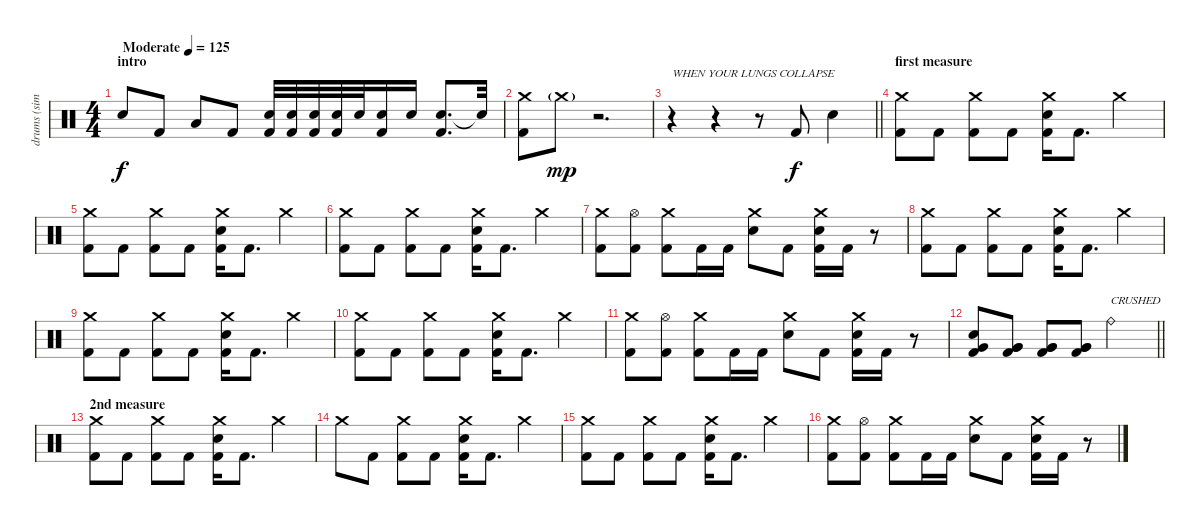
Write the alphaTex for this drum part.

\track ("drums (simple)" "drums (sim") {instrument percussion}
\staff {score}
\articulation defaults
\ts (4 4)
\section ("" "intro")
\tempo (125 "Moderate")
\clef neutral
\ks c "Electric Snare (hit)".8{dy f} "Kick (hit) 2".8 "Low Tom (hit)".8 "Kick (hit) 2".8
("Electric Snare (hit)" "Kick (hit) 2").32 ("Electric Snare (hit)" "Kick (hit) 2").32 ("Electric Snare (hit)" "Kick (hit) 2").32 ("Electric Snare (hit)" "Kick (hit) 2").32 "Electric Snare (hit)".32 ("Electric Snare (hit)" "Kick (hit) 2").16 "Electric Snare (hit)".16 ("Electric Snare (hit)" "Kick (hit) 2").8{d} "Snare (hit)"{t}.32 |
("Crash medium (hit)" "Kick (hit) 2").8 "Crash medium (hit)"{g}.8{dy mp volume 0} r.2{d} |
\barLineRight lightlight
r.4{txt "WHEN YOUR LUNGS COLLAPSE"} r.4 r.8 "Kick (hit) 2".8{dy f volume 12} "Electric Snare (hit)".4 |
\section ("" "first measure")
("Crash medium (hit)" "Kick (hit) 2").8 "Kick (hit) 2".8 ("Crash medium (hit)" "Kick (hit) 2").8 "Kick (hit) 2".8 ("Crash medium (hit)" "Electric Snare (hit)" "Kick (hit) 2").16 "Kick (hit) 2".8{d} "Crash medium (hit)".4 |
("Crash medium (hit)" "Kick (hit) 2").8 "Kick (hit) 2".8 ("Crash medium (hit)" "Kick (hit) 2").8 "Kick (hit) 2".8 ("Crash medium (hit)" "Electric Snare (hit)" "Kick (hit) 2").16 "Kick (hit) 2".8{d} "Crash medium (hit)".4 |
("Crash medium (hit)" "Kick (hit) 2").8 "Kick (hit) 2".8 ("Crash medium (hit)" "Kick (hit) 2").8 "Kick (hit) 2".8 ("Crash medium (hit)" "Electric Snare (hit)" "Kick (hit) 2").16 "Kick (hit) 2".8{d} "Crash medium (hit)".4 |
("Crash medium (hit)" "Kick (hit) 2").8 ("Hi-Hat (open)" "Kick (hit) 2").8 ("Crash medium (hit)" "Kick (hit) 2").8 "Kick (hit) 2".16 "Kick (hit) 2".16 ("Crash medium (hit)" "Electric Snare (hit)").8 "Kick (hit) 2".8 ("Crash medium (hit)" "Electric Snare (hit)" "Kick (hit) 2").16 "Kick (hit) 2".16 r.8 |
("Crash medium (hit)" "Kick (hit) 2").8 "Kick (hit) 2".8 ("Crash medium (hit)" "Kick (hit) 2").8 "Kick (hit) 2".8 ("Crash medium (hit)" "Electric Snare (hit)" "Kick (hit) 2").16 "Kick (hit) 2".8{d} "Crash medium (hit)".4 |
("Crash medium (hit)" "Kick (hit) 2").8 "Kick (hit) 2".8 ("Crash medium (hit)" "Kick (hit) 2").8 "Kick (hit) 2".8 ("Crash medium (hit)" "Electric Snare (hit)" "Kick (hit) 2").16 "Kick (hit) 2".8{d} "Crash medium (hit)".4 |
("Crash medium (hit)" "Kick (hit) 2").8 "Kick (hit) 2".8 ("Crash medium (hit)" "Kick (hit) 2").8 "Kick (hit) 2".8 ("Crash medium (hit)" "Electric Snare (hit)" "Kick (hit) 2").16 "Kick (hit) 2".8{d} "Crash medium (hit)".4 |
("Crash medium (hit)" "Kick (hit) 2").8 ("Hi-Hat (open)" "Kick (hit) 2").8 ("Crash medium (hit)" "Kick (hit) 2").8 "Kick (hit) 2".16 "Kick (hit) 2".16 ("Crash medium (hit)" "Electric Snare (hit)").8 "Kick (hit) 2".8 ("Crash medium (hit)" "Electric Snare (hit)" "Kick (hit) 2").16 "Kick (hit) 2".16 r.8 |
\barLineRight lightlight
("Electric Snare (hit)" "Very Low Tom (hit)" "Kick (hit) 2").8 ("Very Low Tom (hit)" "Very Low Tom (hit)" "Kick (hit) 2").8 ("Very Low Tom (hit)" "Very Low Tom (hit)" "Kick (hit) 2").8 ("Very Low Tom (hit)" "Very Low Tom (hit)" "Kick (hit) 2").8 "Ride (bell)".2{txt "CRUSHED"} |
\section ("" "2nd measure")
("Crash medium (hit)" "Kick (hit) 2").8 "Kick (hit) 2".8 ("Crash medium (hit)" "Kick (hit) 2").8 "Kick (hit) 2".8 ("Crash medium (hit)" "Electric Snare (hit)" "Kick (hit) 2").16 "Kick (hit) 2".8{d} "Crash medium (hit)".4 |
"Crash medium (hit)".8 "Kick (hit) 2".8 ("Crash medium (hit)" "Kick (hit) 2").8 "Kick (hit) 2".8 ("Crash medium (hit)" "Electric Snare (hit)" "Kick (hit) 2").16 "Kick (hit) 2".8{d} "Crash medium (hit)".4 |
("Crash medium (hit)" "Kick (hit) 2").8 "Kick (hit) 2".8 ("Crash medium (hit)" "Kick (hit) 2").8 "Kick (hit) 2".8 ("Crash medium (hit)" "Electric Snare (hit)" "Kick (hit) 2").16 "Kick (hit) 2".8{d} "Crash medium (hit)".4 |
("Crash medium (hit)" "Kick (hit) 2").8 ("Hi-Hat (open)" "Kick (hit) 2").8 ("Crash medium (hit)" "Kick (hit) 2").8 "Kick (hit) 2".16 "Kick (hit) 2".16 ("Crash medium (hit)" "Electric Snare (hit)").8 "Kick (hit) 2".8 ("Crash medium (hit)" "Electric Snare (hit)" "Kick (hit) 2").16 "Kick (hit) 2".16 r.8
